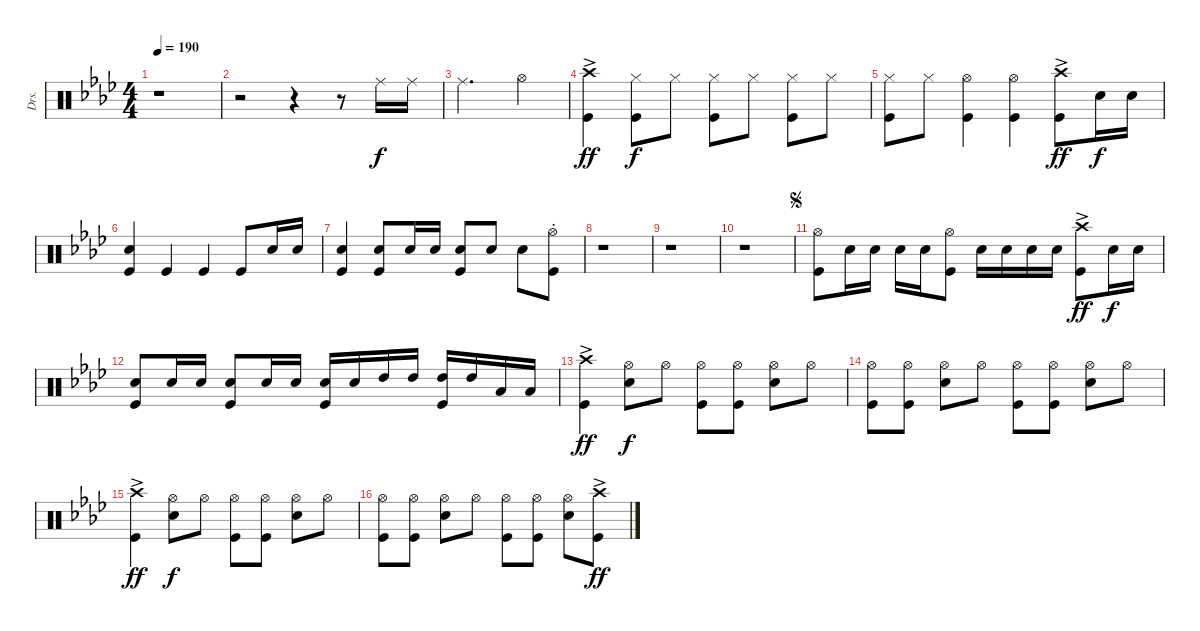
\track ("Drs." "Drs.") {instrument percussion}
\staff {score}
\articulation defaults
\ts (4 4)
\tempo 190
\clef neutral
\ks ab
r.1{dy ff} |
r.2 r.4 r.8 "Ride (middle)".16{dy f} "Ride (middle)".16 |
"Ride (middle)".2{d} "Hi-Hat (open)".4 |
("Crash high (hit)"{ac} "Kick (hit)").4{dy ff} ("Hi-Hat (closed)" "Kick (hit)").8{dy f} "Hi-Hat (closed)".8 ("Hi-Hat (closed)" "Kick (hit)").8 "Hi-Hat (closed)".8 ("Hi-Hat (closed)" "Kick (hit)").8 "Hi-Hat (closed)".8 |
("Hi-Hat (closed)" "Kick (hit)").8 "Hi-Hat (closed)".8 ("Hi-Hat (open)" "Kick (hit)").4 ("Hi-Hat (open)" "Kick (hit)").4 ("Crash high (hit)"{ac} "Kick (hit)").8{dy ff} "Snare (hit) 2".16{dy f} "Snare (hit) 2".16 |
("Snare (hit) 2" "Kick (hit)").4 "Kick (hit)".4 "Kick (hit)".4 "Kick (hit)".8 "Snare (hit) 2".16 "Snare (hit) 2".16 |
("Snare (hit) 2" "Kick (hit)").4 ("Snare (hit) 2" "Kick (hit)").8 "Snare (hit) 2".16 "Snare (hit) 2".16 ("Snare (hit) 2" "Kick (hit)").8 "Snare (hit) 2".8 "Snare (hit) 2".8 ("Hi-Hat (open)"{st} "Kick (hit)"{st}).8 |
r.1 |
r.1 |
r.1 |
\jump segno
("Hi-Hat (open)" "Kick (hit)").8 "Snare (hit) 2".16 "Snare (hit) 2".16 "Snare (hit) 2".16 "Snare (hit) 2".16 ("Hi-Hat (open)" "Kick (hit)").8 "Snare (hit) 2".16 "Snare (hit) 2".16 "Snare (hit) 2".16 "Snare (hit) 2".16 ("Crash high (hit)"{ac} "Kick (hit)").8{dy ff} "Snare (hit) 2".16{dy f} "Snare (hit) 2".16 |
("Snare (hit) 2" "Kick (hit)").8 "Snare (hit) 2".16 "Snare (hit) 2".16 ("Snare (hit) 2" "Kick (hit)").8 "Snare (hit) 2".16 "Snare (hit) 2".16 ("Snare (hit) 2" "Kick (hit)").16 "Snare (hit) 2".16 "High Tom (hit)".16 "High Tom (hit)".16 ("High Tom (hit)" "Kick (hit)").16 "High Tom (hit)".16 "Low Tom (hit)".16 "Low Tom (hit)".16 |
("Crash high (hit)"{ac} "Kick (hit)").4{dy ff} ("Hi-Hat (open)" "Snare (hit) 2").8{dy f} "Hi-Hat (open)".8 ("Hi-Hat (open)" "Kick (hit)").8 ("Hi-Hat (open)" "Kick (hit)").8 ("Hi-Hat (open)" "Snare (hit) 2").8 "Hi-Hat (open)".8 |
("Hi-Hat (open)" "Kick (hit)").8 ("Hi-Hat (open)" "Kick (hit)").8 ("Hi-Hat (open)" "Snare (hit) 2").8 "Hi-Hat (open)".8 ("Hi-Hat (open)" "Kick (hit)").8 ("Hi-Hat (open)" "Kick (hit)").8 ("Hi-Hat (open)" "Snare (hit) 2").8 "Hi-Hat (open)".8 |
("Crash high (hit)"{ac} "Kick (hit)").4{dy ff} ("Hi-Hat (open)" "Snare (hit) 2").8{dy f} "Hi-Hat (open)".8 ("Hi-Hat (open)" "Kick (hit)").8 ("Hi-Hat (open)" "Kick (hit)").8 ("Hi-Hat (open)" "Snare (hit) 2").8 "Hi-Hat (open)".8 |
("Hi-Hat (open)" "Kick (hit)").8 ("Hi-Hat (open)" "Kick (hit)").8 ("Hi-Hat (open)" "Snare (hit) 2").8 "Hi-Hat (open)".8 ("Hi-Hat (open)" "Kick (hit)").8 ("Hi-Hat (open)" "Kick (hit)").8 ("Hi-Hat (open)" "Snare (hit) 2").8 ("Crash high (hit)"{ac} "Kick (hit)").8{dy ff}
